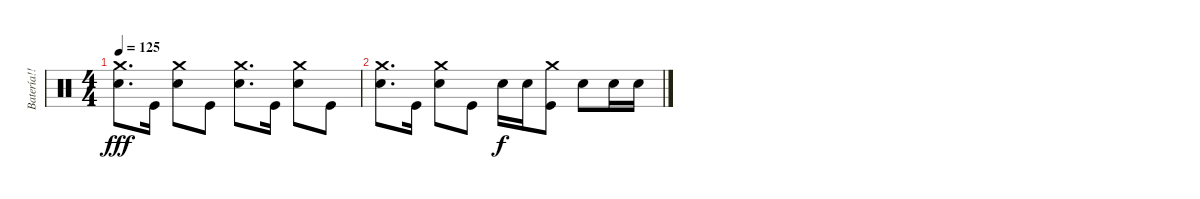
\track ("Batería!! >_<" "Batería!! ") {instrument percussion}
\staff {score}
\articulation defaults
\ts (4 4)
\tempo 125
\clef neutral
\ks c
("Crash medium (hit)" "Snare (hit) 2").8{d dy fff} "Kick (hit)".16 ("Crash medium (hit)" "Snare (hit) 2").8 "Kick (hit)".8 ("Crash medium (hit)" "Snare (hit) 2").8{d} "Kick (hit)".16 ("Crash medium (hit)" "Snare (hit) 2").8 "Kick (hit)".8 |
("Crash medium (hit)" "Snare (hit) 2").8{d} "Kick (hit)".16 ("Crash medium (hit)" "Snare (hit) 2").8 "Kick (hit)".8 "Snare (hit) 2".16{dy f} "Snare (hit) 2".16 ("Crash medium (hit)" "Kick (hit)").8 "Snare (hit) 2".8 "Snare (hit) 2".16 "Snare (hit) 2".16
